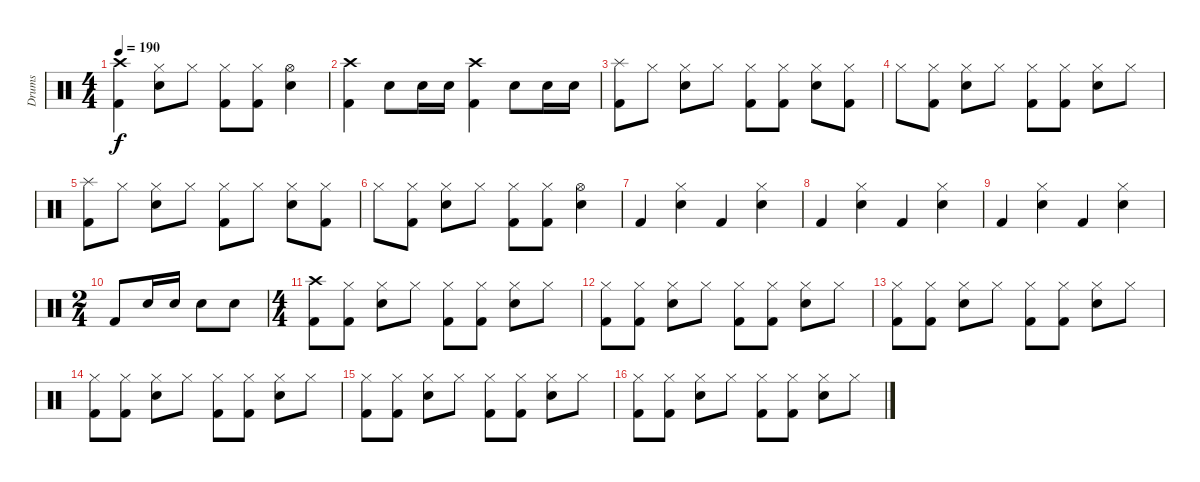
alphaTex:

\track ("Drums" "Drums") {instrument percussion}
\staff {score}
\articulation defaults
\ts (4 4)
\tempo 190
\clef neutral
\ks c
("Kick (hit) 2" "Crash high (hit)").4{dy f} ("Snare (hit) 2" "Hi-Hat (closed)").8 "Hi-Hat (closed)".8 ("Kick (hit) 2" "Hi-Hat (closed)").8 ("Kick (hit) 2" "Hi-Hat (closed)").8 ("Snare (hit) 2" "Hi-Hat (open)").4 |
("Kick (hit) 2" "Crash high (hit)").4 "Snare (hit) 2".8 "Snare (hit) 2".16 "Snare (hit) 2".16 ("Kick (hit) 2" "Crash high (hit)").4 "Snare (hit) 2".8 "Snare (hit) 2".16 "Snare (hit) 2".16 |
("Kick (hit) 2" "Splash (hit)").8 "Hi-Hat (closed)".8 ("Snare (hit) 2" "Hi-Hat (closed)").8 "Hi-Hat (closed)".8 ("Kick (hit) 2" "Hi-Hat (closed)").8 ("Kick (hit) 2" "Hi-Hat (closed)").8 ("Snare (hit) 2" "Hi-Hat (closed)").8 ("Kick (hit) 2" "Hi-Hat (closed)").8 |
"Hi-Hat (closed)".8 ("Kick (hit) 2" "Hi-Hat (closed)").8 ("Snare (hit) 2" "Hi-Hat (closed)").8 "Hi-Hat (closed)".8 ("Kick (hit) 2" "Hi-Hat (closed)").8 ("Kick (hit) 2" "Hi-Hat (closed)").8 ("Snare (hit) 2" "Hi-Hat (closed)").8 "Hi-Hat (closed)".8 |
("Kick (hit) 2" "Splash (hit)").8 "Hi-Hat (closed)".8 ("Snare (hit) 2" "Hi-Hat (closed)").8 "Hi-Hat (closed)".8 ("Kick (hit) 2" "Hi-Hat (closed)").8 "Hi-Hat (closed)".8 ("Snare (hit) 2" "Hi-Hat (closed)").8 ("Kick (hit) 2" "Hi-Hat (closed)").8 |
"Hi-Hat (closed)".8 ("Kick (hit) 2" "Hi-Hat (closed)").8 ("Snare (hit) 2" "Hi-Hat (closed)").8 "Hi-Hat (closed)".8 ("Kick (hit) 2" "Hi-Hat (closed)").8 ("Kick (hit) 2" "Hi-Hat (closed)").8 ("Snare (hit) 2" "Hi-Hat (open)").4 |
"Kick (hit) 2".4 ("Snare (hit) 2" "Hi-Hat (closed)").4 "Kick (hit) 2".4 ("Snare (hit) 2" "Hi-Hat (closed)").4 |
"Kick (hit) 2".4 ("Snare (hit) 2" "Hi-Hat (closed)").4 "Kick (hit) 2".4 ("Snare (hit) 2" "Hi-Hat (closed)").4 |
"Kick (hit) 2".4 ("Snare (hit) 2" "Hi-Hat (closed)").4 "Kick (hit) 2".4 ("Snare (hit) 2" "Hi-Hat (closed)").4 |
\ts (2 4)
"Kick (hit) 2".8 "Snare (hit) 2".16 "Snare (hit) 2".16 "Snare (hit) 2".8 "Snare (hit) 2".8 |
\ts (4 4)
("Kick (hit) 2" "Crash high (hit)").8 ("Kick (hit) 2" "Hi-Hat (closed)").8 ("Snare (hit) 2" "Hi-Hat (closed)").8 "Hi-Hat (closed)".8 ("Kick (hit) 2" "Hi-Hat (closed)").8 ("Kick (hit) 2" "Hi-Hat (closed)").8 ("Snare (hit) 2" "Hi-Hat (closed)").8 "Hi-Hat (closed)".8 |
("Kick (hit) 2" "Hi-Hat (closed)").8 ("Kick (hit) 2" "Hi-Hat (closed)").8 ("Snare (hit) 2" "Hi-Hat (closed)").8 "Hi-Hat (closed)".8 ("Kick (hit) 2" "Hi-Hat (closed)").8 ("Kick (hit) 2" "Hi-Hat (closed)").8 ("Snare (hit) 2" "Hi-Hat (closed)").8 "Hi-Hat (closed)".8 |
("Kick (hit) 2" "Hi-Hat (closed)").8 ("Kick (hit) 2" "Hi-Hat (closed)").8 ("Snare (hit) 2" "Hi-Hat (closed)").8 "Hi-Hat (closed)".8 ("Kick (hit) 2" "Hi-Hat (closed)").8 ("Kick (hit) 2" "Hi-Hat (closed)").8 ("Snare (hit) 2" "Hi-Hat (closed)").8 "Hi-Hat (closed)".8 |
("Kick (hit) 2" "Hi-Hat (closed)").8 ("Kick (hit) 2" "Hi-Hat (closed)").8 ("Snare (hit) 2" "Hi-Hat (closed)").8 "Hi-Hat (closed)".8 ("Kick (hit) 2" "Hi-Hat (closed)").8 ("Kick (hit) 2" "Hi-Hat (closed)").8 ("Snare (hit) 2" "Hi-Hat (closed)").8 "Hi-Hat (closed)".8 |
("Kick (hit) 2" "Hi-Hat (closed)").8 ("Kick (hit) 2" "Hi-Hat (closed)").8 ("Snare (hit) 2" "Hi-Hat (closed)").8 "Hi-Hat (closed)".8 ("Kick (hit) 2" "Hi-Hat (closed)").8 ("Kick (hit) 2" "Hi-Hat (closed)").8 ("Snare (hit) 2" "Hi-Hat (closed)").8 "Hi-Hat (closed)".8 |
("Kick (hit) 2" "Hi-Hat (closed)").8 ("Kick (hit) 2" "Hi-Hat (closed)").8 ("Snare (hit) 2" "Hi-Hat (closed)").8 "Hi-Hat (closed)".8 ("Kick (hit) 2" "Hi-Hat (closed)").8 ("Kick (hit) 2" "Hi-Hat (closed)").8 ("Snare (hit) 2" "Hi-Hat (closed)").8 "Hi-Hat (closed)".8
